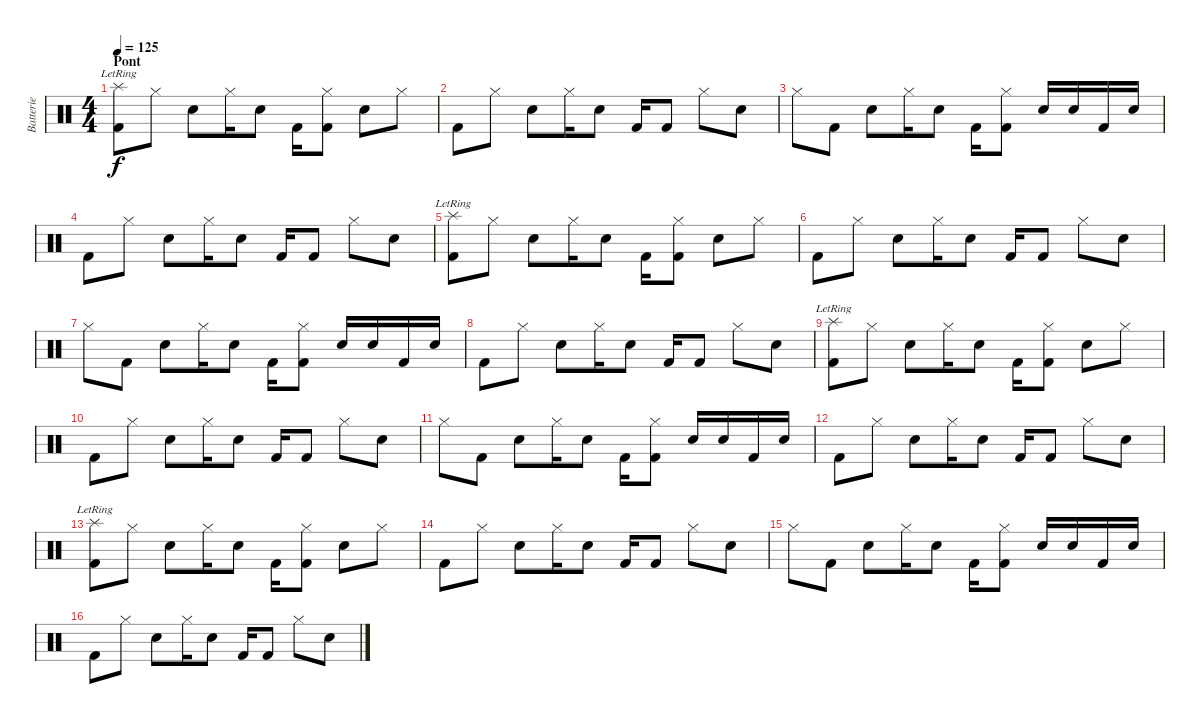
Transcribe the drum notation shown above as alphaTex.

\track ("Batterie" "Batterie") {instrument percussion}
\staff {score}
\articulation defaults
\ts (4 4)
\section ("" "Pont")
\tempo 125
\clef neutral
\ks c
("Splash (hit)"{lr} "Kick (hit) 2").8{dy f} "Hi-Hat (closed)".8 "Electric Snare (hit)".8 "Hi-Hat (closed)".16 "Electric Snare (hit)".8 "Kick (hit) 2".16 ("Hi-Hat (closed)" "Kick (hit) 2").8 "Electric Snare (hit)".8 "Hi-Hat (closed)".8 |
"Kick (hit) 2".8 "Hi-Hat (closed)".8 "Electric Snare (hit)".8 "Hi-Hat (closed)".16 "Electric Snare (hit)".8 "Kick (hit) 2".16 "Kick (hit) 2".8 "Hi-Hat (closed)".8 "Electric Snare (hit)".8 |
"Hi-Hat (closed)".8 "Kick (hit) 2".8 "Electric Snare (hit)".8 "Hi-Hat (closed)".16 "Electric Snare (hit)".8 "Kick (hit) 2".16 ("Hi-Hat (closed)" "Kick (hit) 2").8 "Electric Snare (hit)".16 "Electric Snare (hit)".16 "Kick (hit) 2".16 "Electric Snare (hit)".16 |
"Kick (hit) 2".8 "Hi-Hat (closed)".8 "Electric Snare (hit)".8 "Hi-Hat (closed)".16 "Electric Snare (hit)".8 "Kick (hit) 2".16 "Kick (hit) 2".8 "Hi-Hat (closed)".8 "Electric Snare (hit)".8 |
("Splash (hit)"{lr} "Kick (hit) 2").8 "Hi-Hat (closed)".8 "Electric Snare (hit)".8 "Hi-Hat (closed)".16 "Electric Snare (hit)".8 "Kick (hit) 2".16 ("Hi-Hat (closed)" "Kick (hit) 2").8 "Electric Snare (hit)".8 "Hi-Hat (closed)".8 |
"Kick (hit) 2".8 "Hi-Hat (closed)".8 "Electric Snare (hit)".8 "Hi-Hat (closed)".16 "Electric Snare (hit)".8 "Kick (hit) 2".16 "Kick (hit) 2".8 "Hi-Hat (closed)".8 "Electric Snare (hit)".8 |
"Hi-Hat (closed)".8 "Kick (hit) 2".8 "Electric Snare (hit)".8 "Hi-Hat (closed)".16 "Electric Snare (hit)".8 "Kick (hit) 2".16 ("Hi-Hat (closed)" "Kick (hit) 2").8 "Electric Snare (hit)".16 "Electric Snare (hit)".16 "Kick (hit) 2".16 "Electric Snare (hit)".16 |
"Kick (hit) 2".8 "Hi-Hat (closed)".8 "Electric Snare (hit)".8 "Hi-Hat (closed)".16 "Electric Snare (hit)".8 "Kick (hit) 2".16 "Kick (hit) 2".8 "Hi-Hat (closed)".8 "Electric Snare (hit)".8 |
("Splash (hit)"{lr} "Kick (hit) 2").8 "Hi-Hat (closed)".8 "Electric Snare (hit)".8 "Hi-Hat (closed)".16 "Electric Snare (hit)".8 "Kick (hit) 2".16 ("Hi-Hat (closed)" "Kick (hit) 2").8 "Electric Snare (hit)".8 "Hi-Hat (closed)".8 |
"Kick (hit) 2".8 "Hi-Hat (closed)".8 "Electric Snare (hit)".8 "Hi-Hat (closed)".16 "Electric Snare (hit)".8 "Kick (hit) 2".16 "Kick (hit) 2".8 "Hi-Hat (closed)".8 "Electric Snare (hit)".8 |
"Hi-Hat (closed)".8 "Kick (hit) 2".8 "Electric Snare (hit)".8 "Hi-Hat (closed)".16 "Electric Snare (hit)".8 "Kick (hit) 2".16 ("Hi-Hat (closed)" "Kick (hit) 2").8 "Electric Snare (hit)".16 "Electric Snare (hit)".16 "Kick (hit) 2".16 "Electric Snare (hit)".16 |
"Kick (hit) 2".8 "Hi-Hat (closed)".8 "Electric Snare (hit)".8 "Hi-Hat (closed)".16 "Electric Snare (hit)".8 "Kick (hit) 2".16 "Kick (hit) 2".8 "Hi-Hat (closed)".8 "Electric Snare (hit)".8 |
("Splash (hit)"{lr} "Kick (hit) 2").8 "Hi-Hat (closed)".8 "Electric Snare (hit)".8 "Hi-Hat (closed)".16 "Electric Snare (hit)".8 "Kick (hit) 2".16 ("Hi-Hat (closed)" "Kick (hit) 2").8 "Electric Snare (hit)".8 "Hi-Hat (closed)".8 |
"Kick (hit) 2".8 "Hi-Hat (closed)".8 "Electric Snare (hit)".8 "Hi-Hat (closed)".16 "Electric Snare (hit)".8 "Kick (hit) 2".16 "Kick (hit) 2".8 "Hi-Hat (closed)".8 "Electric Snare (hit)".8 |
"Hi-Hat (closed)".8 "Kick (hit) 2".8 "Electric Snare (hit)".8 "Hi-Hat (closed)".16 "Electric Snare (hit)".8 "Kick (hit) 2".16 ("Hi-Hat (closed)" "Kick (hit) 2").8 "Electric Snare (hit)".16 "Electric Snare (hit)".16 "Kick (hit) 2".16 "Electric Snare (hit)".16 |
"Kick (hit) 2".8 "Hi-Hat (closed)".8 "Electric Snare (hit)".8 "Hi-Hat (closed)".16 "Electric Snare (hit)".8 "Kick (hit) 2".16 "Kick (hit) 2".8 "Hi-Hat (closed)".8 "Electric Snare (hit)".8
